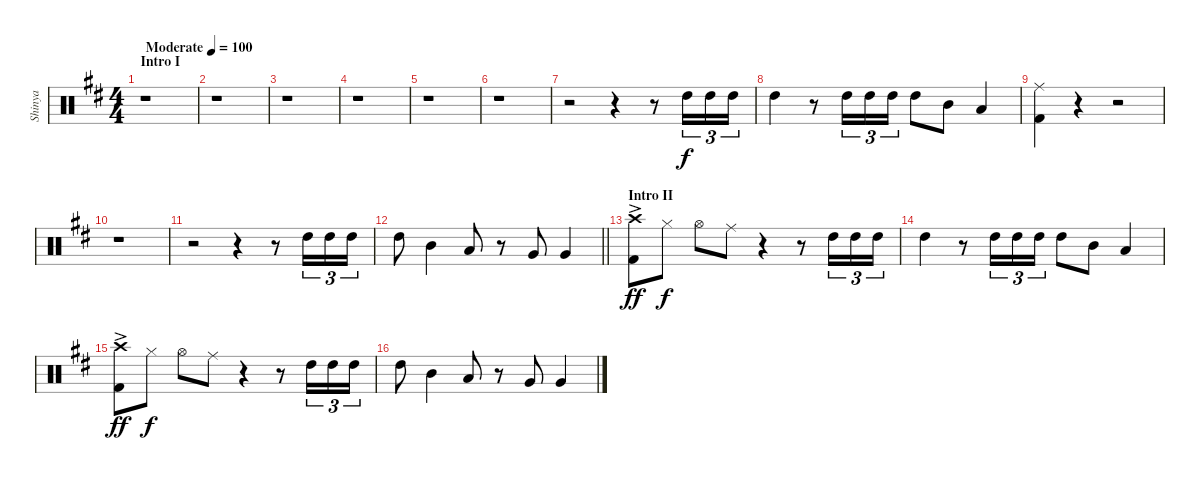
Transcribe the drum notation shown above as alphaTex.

\track ("Shinya" "Shinya") {instrument percussion}
\staff {score}
\articulation defaults
\ts (4 4)
\section ("" "Intro I")
\tempo (100 "Moderate")
\clef neutral
\ks d
r.1{dy f} |
r.1 |
r.1 |
r.1 |
r.1 |
r.1 |
r.2 r.4 r.8 "High Tom (hit)".16{tu (3 2)} "High Tom (hit)".16{tu (3 2)} "High Tom (hit)".16{tu (3 2)} |
"High Tom (hit)".4 r.8 "High Tom (hit)".16{tu (3 2)} "High Tom (hit)".16{tu (3 2)} "High Tom (hit)".16{tu (3 2)} "High Tom (hit)".8 "Mid Tom (hit)".8 "Low Tom (hit)".4 |
("Ride (middle)" "Kick (hit) 2").4 r.4 r.2 |
r.1 |
r.2 r.4 r.8 "High Tom (hit)".16{tu (3 2)} "High Tom (hit)".16{tu (3 2)} "High Tom (hit)".16{tu (3 2)} |
\barLineRight lightlight "High Tom (hit)".8 "Mid Tom (hit)".4 "Low Tom (hit)".8
r.8 "Very Low Tom (hit)".8 "Very Low Tom (hit)".4 |
\section ("" "Intro II")
("Crash high (hit)" "Kick (hit) 2"{ac}).8{dy ff} "Hi-Hat (closed)".8{dy f} "Hi-Hat (open)".8 "Ride (middle)".8 r.4 r.8 "High Tom (hit)".16{tu (3 2)} "High Tom (hit)".16{tu (3 2)} "High Tom (hit)".16{tu (3 2)} |
"High Tom (hit)".4 r.8 "High Tom (hit)".16{tu (3 2)} "High Tom (hit)".16{tu (3 2)} "High Tom (hit)".16{tu (3 2)} "High Tom (hit)".8 "Mid Tom (hit)".8 "Low Tom (hit)".4 |
("Crash high (hit)" "Kick (hit) 2"{ac}).8{dy ff} "Hi-Hat (closed)".8{dy f} "Hi-Hat (open)".8 "Ride (middle)".8 r.4 r.8 "High Tom (hit)".16{tu (3 2)} "High Tom (hit)".16{tu (3 2)} "High Tom (hit)".16{tu (3 2)} |
"High Tom (hit)".8 "Mid Tom (hit)".4 "Low Tom (hit)".8 r.8 "Very Low Tom (hit)".8 "Very Low Tom (hit)".4
